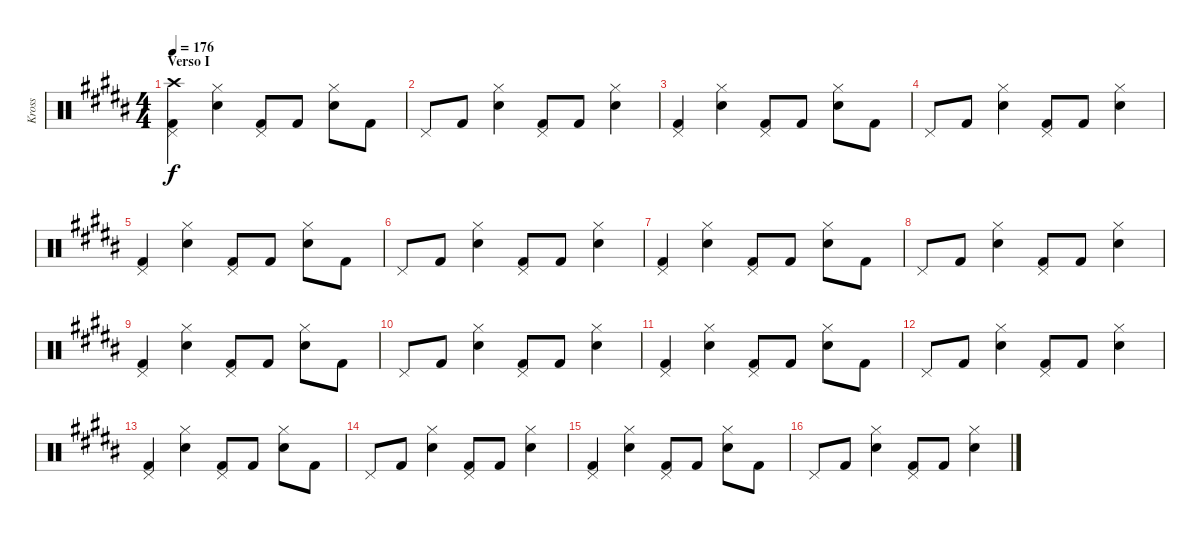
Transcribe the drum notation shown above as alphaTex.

\track ("Kross" "Kross") {instrument percussion}
\staff {score}
\articulation defaults
\ts (4 4)
\section ("" "Verso I")
\tempo 176
\clef neutral
\ks b
("Crash high (hit)" "Pedal Hi-Hat (hit)" "Kick (hit) 2").4{dy f} ("Hi-Hat (closed)" "Electric Snare (hit)").4 ("Pedal Hi-Hat (hit)" "Kick (hit) 2").8 "Kick (hit) 2".8 ("Hi-Hat (closed)" "Electric Snare (hit)").8 "Kick (hit) 2".8 |
"Pedal Hi-Hat (hit)".8 "Kick (hit) 2".8 ("Hi-Hat (closed)" "Electric Snare (hit)").4 ("Pedal Hi-Hat (hit)" "Kick (hit) 2").8 "Kick (hit) 2".8 ("Hi-Hat (closed)" "Electric Snare (hit)").4 |
("Pedal Hi-Hat (hit)" "Kick (hit) 2").4 ("Hi-Hat (closed)" "Electric Snare (hit)").4 ("Pedal Hi-Hat (hit)" "Kick (hit) 2").8 "Kick (hit) 2".8 ("Hi-Hat (closed)" "Electric Snare (hit)").8 "Kick (hit) 2".8 |
"Pedal Hi-Hat (hit)".8 "Kick (hit) 2".8 ("Hi-Hat (closed)" "Electric Snare (hit)").4 ("Pedal Hi-Hat (hit)" "Kick (hit) 2").8 "Kick (hit) 2".8 ("Hi-Hat (closed)" "Electric Snare (hit)").4 |
("Pedal Hi-Hat (hit)" "Kick (hit) 2").4 ("Hi-Hat (closed)" "Electric Snare (hit)").4 ("Pedal Hi-Hat (hit)" "Kick (hit) 2").8 "Kick (hit) 2".8 ("Hi-Hat (closed)" "Electric Snare (hit)").8 "Kick (hit) 2".8 |
"Pedal Hi-Hat (hit)".8 "Kick (hit) 2".8 ("Hi-Hat (closed)" "Electric Snare (hit)").4 ("Pedal Hi-Hat (hit)" "Kick (hit) 2").8 "Kick (hit) 2".8 ("Hi-Hat (closed)" "Electric Snare (hit)").4 |
("Pedal Hi-Hat (hit)" "Kick (hit) 2").4 ("Hi-Hat (closed)" "Electric Snare (hit)").4 ("Pedal Hi-Hat (hit)" "Kick (hit) 2").8 "Kick (hit) 2".8 ("Hi-Hat (closed)" "Electric Snare (hit)").8 "Kick (hit) 2".8 |
"Pedal Hi-Hat (hit)".8 "Kick (hit) 2".8 ("Hi-Hat (closed)" "Electric Snare (hit)").4 ("Pedal Hi-Hat (hit)" "Kick (hit) 2").8 "Kick (hit) 2".8 ("Hi-Hat (closed)" "Electric Snare (hit)").4 |
("Pedal Hi-Hat (hit)" "Kick (hit) 2").4 ("Hi-Hat (closed)" "Electric Snare (hit)").4 ("Pedal Hi-Hat (hit)" "Kick (hit) 2").8 "Kick (hit) 2".8 ("Hi-Hat (closed)" "Electric Snare (hit)").8 "Kick (hit) 2".8 |
"Pedal Hi-Hat (hit)".8 "Kick (hit) 2".8 ("Hi-Hat (closed)" "Electric Snare (hit)").4 ("Pedal Hi-Hat (hit)" "Kick (hit) 2").8 "Kick (hit) 2".8 ("Hi-Hat (closed)" "Electric Snare (hit)").4 |
("Pedal Hi-Hat (hit)" "Kick (hit) 2").4 ("Hi-Hat (closed)" "Electric Snare (hit)").4 ("Pedal Hi-Hat (hit)" "Kick (hit) 2").8 "Kick (hit) 2".8 ("Hi-Hat (closed)" "Electric Snare (hit)").8 "Kick (hit) 2".8 |
"Pedal Hi-Hat (hit)".8 "Kick (hit) 2".8 ("Hi-Hat (closed)" "Electric Snare (hit)").4 ("Pedal Hi-Hat (hit)" "Kick (hit) 2").8 "Kick (hit) 2".8 ("Hi-Hat (closed)" "Electric Snare (hit)").4 |
("Pedal Hi-Hat (hit)" "Kick (hit) 2").4 ("Hi-Hat (closed)" "Electric Snare (hit)").4 ("Pedal Hi-Hat (hit)" "Kick (hit) 2").8 "Kick (hit) 2".8 ("Hi-Hat (closed)" "Electric Snare (hit)").8 "Kick (hit) 2".8 |
"Pedal Hi-Hat (hit)".8 "Kick (hit) 2".8 ("Hi-Hat (closed)" "Electric Snare (hit)").4 ("Pedal Hi-Hat (hit)" "Kick (hit) 2").8 "Kick (hit) 2".8 ("Hi-Hat (closed)" "Electric Snare (hit)").4 |
("Pedal Hi-Hat (hit)" "Kick (hit) 2").4 ("Hi-Hat (closed)" "Electric Snare (hit)").4 ("Pedal Hi-Hat (hit)" "Kick (hit) 2").8 "Kick (hit) 2".8 ("Hi-Hat (closed)" "Electric Snare (hit)").8 "Kick (hit) 2".8 |
"Pedal Hi-Hat (hit)".8 "Kick (hit) 2".8 ("Hi-Hat (closed)" "Electric Snare (hit)").4 ("Pedal Hi-Hat (hit)" "Kick (hit) 2").8 "Kick (hit) 2".8 ("Hi-Hat (closed)" "Electric Snare (hit)").4
